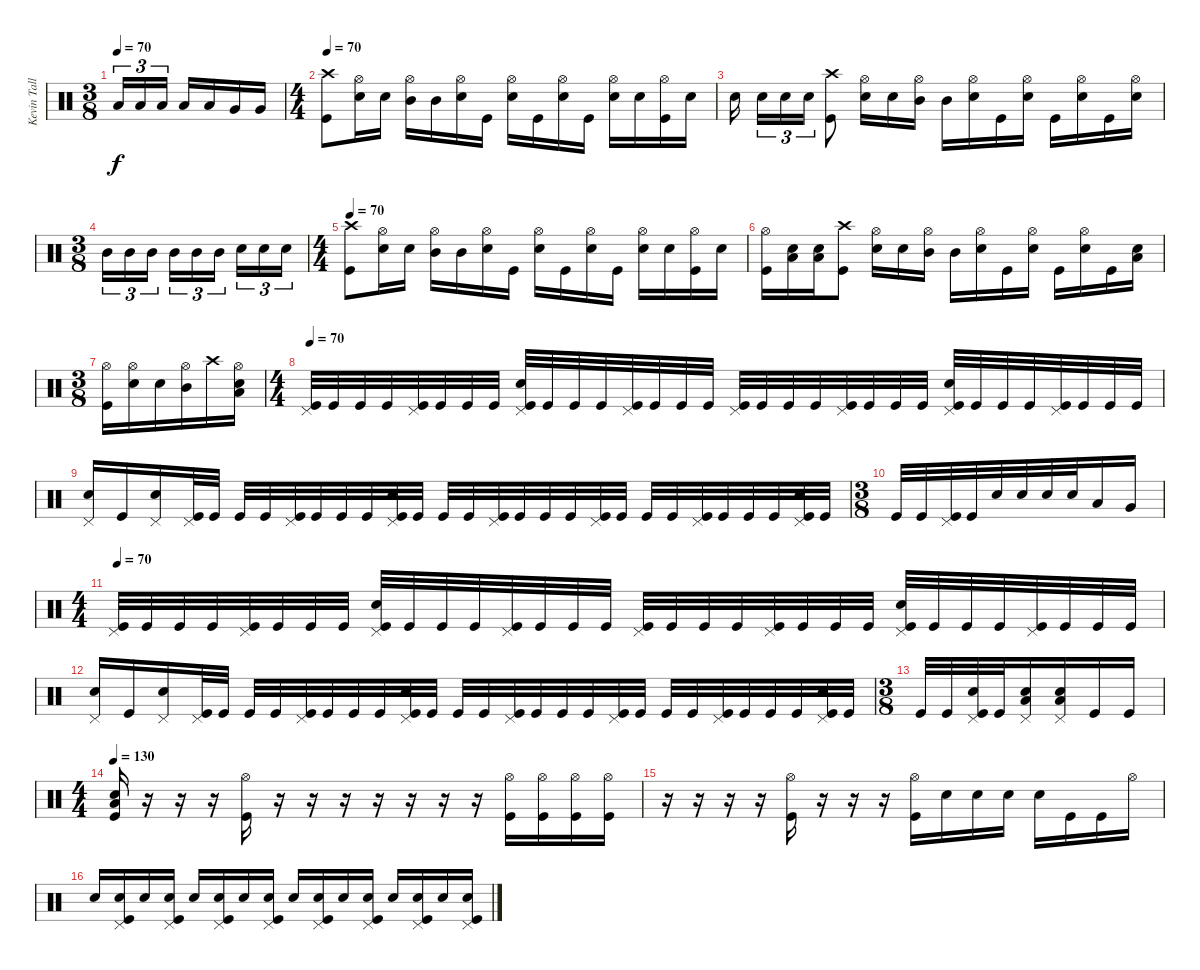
\track ("Kevin Talley" "Kevin Tall") {instrument percussion}
\staff
\articulation defaults
\ts (3 8)
\tempo 70
\clef neutral
\ks c "Low Tom (hit)".16{tu (3 2) dy f} "Low Tom (hit)".16{tu (3 2)} "Low Tom (hit)".16{tu (3 2)} "Low Tom (hit)".16 "Low Tom (hit)".16 "Very Low Tom (hit)".16 "Very Low Tom (hit)".16
|
\ts (4 4)
\tempo 70
("Crash high (hit)" "Kick (hit)").8 ("Hi-Hat (open)" "Snare (hit) 2").16 "Snare (hit) 2".16 ("Hi-Hat (open)" "Mid Tom (hit)").16 "Mid Tom (hit)".16 ("Hi-Hat (open)" "Snare (hit) 2").16 "Kick (hit)".16 ("Hi-Hat (open)" "Snare (hit) 2").16 "Kick (hit)".16 ("Hi-Hat (open)" "Snare (hit) 2").16 "Kick (hit)".16 ("Hi-Hat (open)" "Snare (hit) 2").16 "Snare (hit) 2".16 ("Hi-Hat (open)" "Kick (hit)").16 "Snare (hit) 2".16 |
"Snare (hit) 2".16{beam splitsecondary} "Snare (hit) 2".16{tu (3 2)} "Snare (hit) 2".16{tu (3 2)} "Snare (hit) 2".16{tu (3 2)} ("Crash high (hit)" "Kick (hit)").8 ("Hi-Hat (open)" "Snare (hit) 2").16 "Snare (hit) 2".16 ("Hi-Hat (open)" "Mid Tom (hit)").16 "Mid Tom (hit)".16 ("Hi-Hat (open)" "Snare (hit) 2").16 "Kick (hit)".16 ("Hi-Hat (open)" "Snare (hit) 2").16 "Kick (hit)".16 ("Hi-Hat (open)" "Snare (hit) 2").16 "Kick (hit)".16 ("Hi-Hat (open)" "Snare (hit) 2").16 |
\ts (3 8)
"Mid Tom (hit)".16{tu (3 2)} "Mid Tom (hit)".16{tu (3 2)} "Mid Tom (hit)".16{tu (3 2)} "Mid Tom (hit)".16{tu (3 2)} "Mid Tom (hit)".16{tu (3 2)} "Mid Tom (hit)".16{tu (3 2)} "Snare (hit) 2".16{tu (3 2)} "Snare (hit) 2".16{tu (3 2)} "Snare (hit) 2".16{tu (3 2)} |
\ts (4 4)
\tempo 70
("Crash high (hit)" "Kick (hit)").8 ("Hi-Hat (open)" "Snare (hit) 2").16 "Snare (hit) 2".16 ("Hi-Hat (open)" "Mid Tom (hit)").16 "Mid Tom (hit)".16 ("Hi-Hat (open)" "Snare (hit) 2").16 "Kick (hit)".16 ("Hi-Hat (open)" "Snare (hit) 2").16 "Kick (hit)".16 ("Hi-Hat (open)" "Snare (hit) 2").16 "Kick (hit)".16 ("Hi-Hat (open)" "Snare (hit) 2").16 "Snare (hit) 2".16 ("Hi-Hat (open)" "Kick (hit)").16 "Snare (hit) 2".16 |
("Hi-Hat (open)" "Kick (hit)").16 ("Low Tom (hit)" "Snare (hit) 2").16 ("Low Tom (hit)" "Snare (hit) 2").16 ("Crash high (hit)" "Kick (hit)").8 ("Hi-Hat (open)" "Snare (hit) 2").16 "Snare (hit) 2".16 ("Hi-Hat (open)" "Mid Tom (hit)").16 "Mid Tom (hit)".16 ("Hi-Hat (open)" "Snare (hit) 2").16 "Kick (hit)".16 ("Hi-Hat (open)" "Snare (hit) 2").16 "Kick (hit)".16 ("Hi-Hat (open)" "Snare (hit) 2").16 "Kick (hit)".16 ("Low Tom (hit)" "Snare (hit) 2").16 |
\ts (3 8)
("Hi-Hat (open)" "Kick (hit)").16 ("Hi-Hat (open)" "Snare (hit) 2").16 "Snare (hit) 2".16 ("Hi-Hat (open)" "Mid Tom (hit)").16 "Crash high (hit)".16 ("Hi-Hat (open)" "Snare (hit) 2" "Low Floor Tom (hit)").16 |
\ts (4 4)
\tempo 70
("Pedal Hi-Hat (hit)" "Kick (hit)").32 "Kick (hit)".32 "Kick (hit)".32 "Kick (hit)".32 ("Pedal Hi-Hat (hit)" "Kick (hit)").32 "Kick (hit)".32 "Kick (hit)".32 "Kick (hit)".32 ("Pedal Hi-Hat (hit)" "Snare (hit) 2" "Kick (hit)").32 "Kick (hit)".32 "Kick (hit)".32 "Kick (hit)".32 ("Pedal Hi-Hat (hit)" "Kick (hit)").32 "Kick (hit)".32 "Kick (hit)".32 "Kick (hit)".32 ("Pedal Hi-Hat (hit)" "Kick (hit)").32 "Kick (hit)".32 "Kick (hit)".32 "Kick (hit)".32 ("Pedal Hi-Hat (hit)" "Kick (hit)").32 "Kick (hit)".32 "Kick (hit)".32 "Kick (hit)".32 ("Pedal Hi-Hat (hit)" "Snare (hit) 2" "Kick (hit)").32 "Kick (hit)".32 "Kick (hit)".32 "Kick (hit)".32 ("Pedal Hi-Hat (hit)" "Kick (hit)").32 "Kick (hit)".32 "Kick (hit)".32 "Kick (hit)".32 |
("Pedal Hi-Hat (hit)" "Snare (hit) 2").16 "Kick (hit)".16 ("Pedal Hi-Hat (hit)" "Snare (hit) 2").16 ("Pedal Hi-Hat (hit)" "Kick (hit)").32 "Kick (hit)".32 "Kick (hit)".32 "Kick (hit)".32 ("Pedal Hi-Hat (hit)" "Kick (hit)").32 "Kick (hit)".32 "Kick (hit)".32 "Kick (hit)".32 ("Pedal Hi-Hat (hit)" "Snare (hit) 2" "Kick (hit)").32 "Kick (hit)".32 "Kick (hit)".32 "Kick (hit)".32 ("Pedal Hi-Hat (hit)" "Kick (hit)").32 "Kick (hit)".32 "Kick (hit)".32 "Kick (hit)".32 ("Pedal Hi-Hat (hit)" "Kick (hit)").32 "Kick (hit)".32 "Kick (hit)".32 "Kick (hit)".32 ("Pedal Hi-Hat (hit)" "Kick (hit)").32 "Kick (hit)".32 "Kick (hit)".32 "Kick (hit)".32 ("Pedal Hi-Hat (hit)" "Snare (hit) 2" "Kick (hit)").32 "Kick (hit)".32 |
\ts (3 8)
"Kick (hit)".32 "Kick (hit)".32 ("Pedal Hi-Hat (hit)" "Kick (hit)").32 "Kick (hit)".32 "Snare (hit) 2".32 "Snare (hit) 2".32 "Snare (hit) 2".32 "Snare (hit) 2".32 "Low Tom (hit)".16 "Very Low Tom (hit)".16 |
\ts (4 4)
\tempo 70
("Pedal Hi-Hat (hit)" "Kick (hit)").32 "Kick (hit)".32 "Kick (hit)".32 "Kick (hit)".32 ("Pedal Hi-Hat (hit)" "Kick (hit)").32 "Kick (hit)".32 "Kick (hit)".32 "Kick (hit)".32 ("Pedal Hi-Hat (hit)" "Snare (hit) 2" "Kick (hit)").32 "Kick (hit)".32 "Kick (hit)".32 "Kick (hit)".32 ("Pedal Hi-Hat (hit)" "Kick (hit)").32 "Kick (hit)".32 "Kick (hit)".32 "Kick (hit)".32 ("Pedal Hi-Hat (hit)" "Kick (hit)").32 "Kick (hit)".32 "Kick (hit)".32 "Kick (hit)".32 ("Pedal Hi-Hat (hit)" "Kick (hit)").32 "Kick (hit)".32 "Kick (hit)".32 "Kick (hit)".32 ("Pedal Hi-Hat (hit)" "Snare (hit) 2" "Kick (hit)").32 "Kick (hit)".32 "Kick (hit)".32 "Kick (hit)".32 ("Pedal Hi-Hat (hit)" "Kick (hit)").32 "Kick (hit)".32 "Kick (hit)".32 "Kick (hit)".32 |
("Pedal Hi-Hat (hit)" "Snare (hit) 2").16 "Kick (hit)".16 ("Pedal Hi-Hat (hit)" "Snare (hit) 2").16 ("Pedal Hi-Hat (hit)" "Kick (hit)").32 "Kick (hit)".32 "Kick (hit)".32 "Kick (hit)".32 ("Pedal Hi-Hat (hit)" "Kick (hit)").32 "Kick (hit)".32 "Kick (hit)".32 "Kick (hit)".32 ("Pedal Hi-Hat (hit)" "Snare (hit) 2" "Kick (hit)").32 "Kick (hit)".32 "Kick (hit)".32 "Kick (hit)".32 ("Pedal Hi-Hat (hit)" "Kick (hit)").32 "Kick (hit)".32 "Kick (hit)".32 "Kick (hit)".32 ("Pedal Hi-Hat (hit)" "Kick (hit)").32 "Kick (hit)".32 "Kick (hit)".32 "Kick (hit)".32 ("Pedal Hi-Hat (hit)" "Kick (hit)").32 "Kick (hit)".32 "Kick (hit)".32 "Kick (hit)".32 ("Pedal Hi-Hat (hit)" "Snare (hit) 2" "Kick (hit)").32 "Kick (hit)".32 |
\ts (3 8)
"Kick (hit)".32 "Kick (hit)".32 ("Pedal Hi-Hat (hit)" "Snare (hit) 2" "Kick (hit)").32 "Kick (hit)".32 ("Pedal Hi-Hat (hit)" "Snare (hit) 2" "Low Floor Tom (hit)").16 ("Pedal Hi-Hat (hit)" "Snare (hit) 2" "Low Floor Tom (hit)").16 "Kick (hit)".16 "Kick (hit)".16 |
\ts (4 4)
\tempo 130
("Snare (hit) 2" "Low Floor Tom (hit)" "Kick (hit)").16 r.16 r.16 r.16 ("Hi-Hat (open)" "Kick (hit)").16 r.16 r.16 r.16 r.16 r.16 r.16 r.16 ("Hi-Hat (open)" "Kick (hit)").16 ("Hi-Hat (open)" "Kick (hit)").16 ("Hi-Hat (open)" "Kick (hit)").16 ("Hi-Hat (open)" "Kick (hit)").16 |
r.16 r.16 r.16 r.16 ("Hi-Hat (open)" "Kick (hit)").16 r.16 r.16 r.16 ("Hi-Hat (open)" "Kick (hit)").16 "Snare (hit) 2".16 "Snare (hit) 2".16 "Snare (hit) 2".16 "Snare (hit) 2".16 "Kick (hit)".16 "Kick (hit)".16 "Hi-Hat (open)".16 |
"Snare (hit) 2".16 ("Pedal Hi-Hat (hit)" "Snare (hit) 2" "Kick (hit)").16 "Snare (hit) 2".16 ("Pedal Hi-Hat (hit)" "Snare (hit) 2" "Kick (hit)").16 "Snare (hit) 2".16 ("Pedal Hi-Hat (hit)" "Snare (hit) 2" "Kick (hit)").16 "Snare (hit) 2".16 ("Pedal Hi-Hat (hit)" "Snare (hit) 2" "Kick (hit)").16 "Snare (hit) 2".16 ("Pedal Hi-Hat (hit)" "Snare (hit) 2" "Kick (hit)").16 "Snare (hit) 2".16 ("Pedal Hi-Hat (hit)" "Snare (hit) 2" "Kick (hit)").16 "Snare (hit) 2".16 ("Pedal Hi-Hat (hit)" "Snare (hit) 2" "Kick (hit)").16 "Snare (hit) 2".16 ("Pedal Hi-Hat (hit)" "Snare (hit) 2" "Kick (hit)").16
